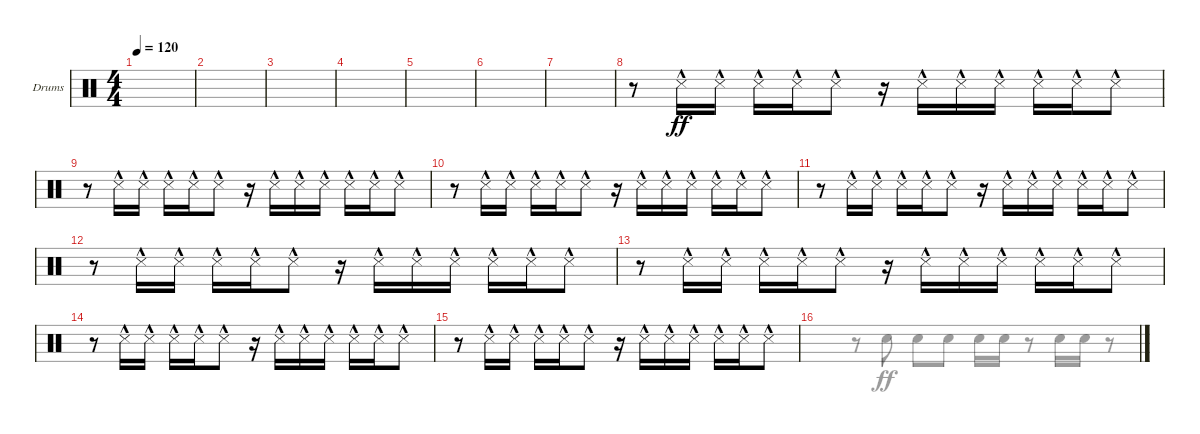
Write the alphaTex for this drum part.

\defaultSystemsLayout 4
\bracketExtendMode groupsimilarinstruments
\firstSystemTrackNameOrientation horizontal
\otherSystemsTrackNameOrientation horizontal
\track ("Drumkit" "Drums") {instrument percussion}
\staff {score}
\articulation defaults
\voice
\ts (4 4)
\tempo 120
\clef neutral
\scale
0.333333
\ks c
|
\scale
0.333333 |
\scale
0.333333 |
\scale
0.333333 |
\scale
0.333333 |
\scale
0.333333 |
\scale
0.333333 |
\scale
0.333333 r.8 "Snare (side stick) 3"{hac}.16{dy ff} "Snare (side stick) 3"{hac}.16 "Snare (side stick) 3"{hac}.16 "Snare (side stick) 3"{hac}.16 "Snare (side stick) 3"{hac}.8 r.16 "Snare (side stick) 3"{hac}.16 "Snare (side stick) 3"{hac}.16 "Snare (side stick) 3"{hac}.16 "Snare (side stick) 3"{hac}.16 "Snare (side stick) 3"{hac}.16 "Snare (side stick) 3"{hac}.8 |
\scale
0.333333 r.8 "Snare (side stick) 3"{hac}.16 "Snare (side stick) 3"{hac}.16 "Snare (side stick) 3"{hac}.16 "Snare (side stick) 3"{hac}.16 "Snare (side stick) 3"{hac}.8 r.16 "Snare (side stick) 3"{hac}.16 "Snare (side stick) 3"{hac}.16 "Snare (side stick) 3"{hac}.16 "Snare (side stick) 3"{hac}.16 "Snare (side stick) 3"{hac}.16 "Snare (side stick) 3"{hac}.8 |
\scale
0.333333 r.8 "Snare (side stick) 3"{hac}.16 "Snare (side stick) 3"{hac}.16 "Snare (side stick) 3"{hac}.16 "Snare (side stick) 3"{hac}.16 "Snare (side stick) 3"{hac}.8 r.16 "Snare (side stick) 3"{hac}.16 "Snare (side stick) 3"{hac}.16 "Snare (side stick) 3"{hac}.16 "Snare (side stick) 3"{hac}.16 "Snare (side stick) 3"{hac}.16 "Snare (side stick) 3"{hac}.8 |
\scale
0.333333 r.8 "Snare (side stick) 3"{hac}.16 "Snare (side stick) 3"{hac}.16 "Snare (side stick) 3"{hac}.16 "Snare (side stick) 3"{hac}.16 "Snare (side stick) 3"{hac}.8 r.16 "Snare (side stick) 3"{hac}.16 "Snare (side stick) 3"{hac}.16 "Snare (side stick) 3"{hac}.16 "Snare (side stick) 3"{hac}.16 "Snare (side stick) 3"{hac}.16 "Snare (side stick) 3"{hac}.8 |
\scale
0.333333 r.8 "Snare (side stick) 3"{hac}.16 "Snare (side stick) 3"{hac}.16 "Snare (side stick) 3"{hac}.16 "Snare (side stick) 3"{hac}.16 "Snare (side stick) 3"{hac}.8 r.16 "Snare (side stick) 3"{hac}.16 "Snare (side stick) 3"{hac}.16 "Snare (side stick) 3"{hac}.16 "Snare (side stick) 3"{hac}.16 "Snare (side stick) 3"{hac}.16 "Snare (side stick) 3"{hac}.8 |
\scale
0.333333 r.8 "Snare (side stick) 3"{hac}.16 "Snare (side stick) 3"{hac}.16 "Snare (side stick) 3"{hac}.16 "Snare (side stick) 3"{hac}.16 "Snare (side stick) 3"{hac}.8 r.16 "Snare (side stick) 3"{hac}.16 "Snare (side stick) 3"{hac}.16 "Snare (side stick) 3"{hac}.16 "Snare (side stick) 3"{hac}.16 "Snare (side stick) 3"{hac}.16 "Snare (side stick) 3"{hac}.8 |
\scale
0.333333 r.8 "Snare (side stick) 3"{hac}.16 "Snare (side stick) 3"{hac}.16 "Snare (side stick) 3"{hac}.16 "Snare (side stick) 3"{hac}.16 "Snare (side stick) 3"{hac}.8 r.16 "Snare (side stick) 3"{hac}.16 "Snare (side stick) 3"{hac}.16 "Snare (side stick) 3"{hac}.16 "Snare (side stick) 3"{hac}.16 "Snare (side stick) 3"{hac}.16 "Snare (side stick) 3"{hac}.8 |
\scale
0.333333 r.8 "Snare (side stick) 3"{hac}.16 "Snare (side stick) 3"{hac}.16 "Snare (side stick) 3"{hac}.16 "Snare (side stick) 3"{hac}.16 "Snare (side stick) 3"{hac}.8 r.16 "Snare (side stick) 3"{hac}.16 "Snare (side stick) 3"{hac}.16 "Snare (side stick) 3"{hac}.16 "Snare (side stick) 3"{hac}.16 "Snare (side stick) 3"{hac}.16 "Snare (side stick) 3"{hac}.8 |
\scale
0.333333
\voice
\clef neutral
\ottava regular
\simile none
\scale
0.333333
\ks c
|
\scale
0.333333 |
\scale
0.333333 |
\scale
0.333333 |
\scale
0.333333 |
\scale
0.333333 |
\scale
0.333333 |
\scale
0.333333 |
\scale
0.333333 |
\scale
0.333333 |
\scale
0.333333 |
\scale
0.333333 |
\scale
0.333333 |
\scale
0.333333 |
\scale
0.333333 |
\scale
0.333333 r.8 "Snare (hit) 2".8 "Snare (hit) 2".8 "Snare (hit) 2".8 "Snare (hit) 2".16 "Snare (hit) 2".16 r.8 "Snare (hit) 2".16 "Snare (hit) 2".16 r.8
